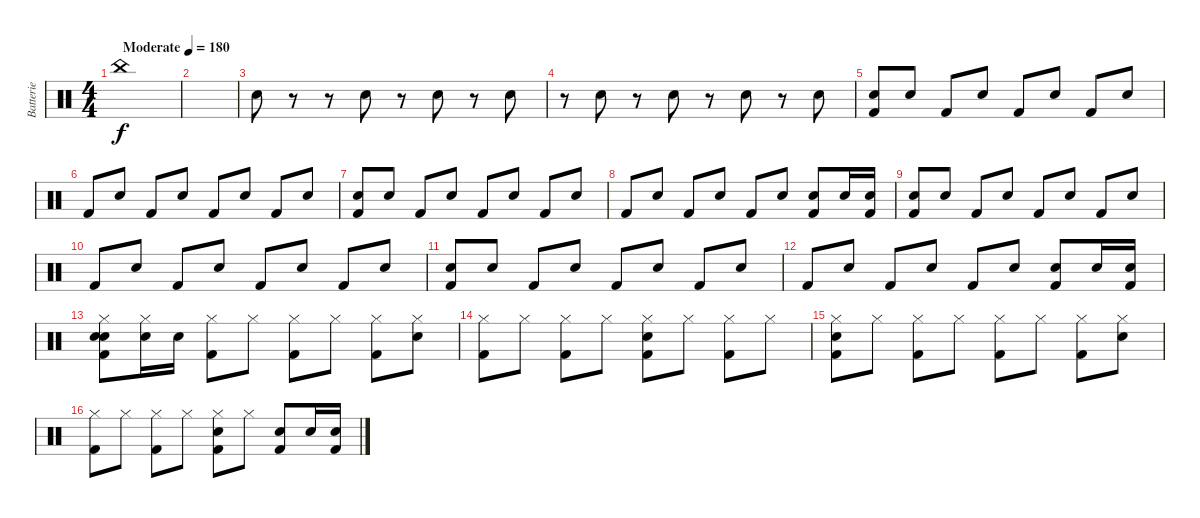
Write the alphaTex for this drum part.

\track ("Batterie" "Batterie") {instrument percussion}
\staff {score}
\articulation defaults
\ts (4 4)
\tempo (180 "Moderate")
\clef neutral
\ks c "China (hit)".1{dy f}
|
|
"Metronome (bell)".8 r.8 r.8 "Metronome (bell)".8 r.8 "Metronome (bell)".8 r.8 "Metronome (bell)".8 |
r.8 "Metronome (bell)".8 r.8 "Metronome (bell)".8 r.8 "Metronome (bell)".8 r.8 "Metronome (bell)".8 |
("Metronome (bell)" "Kick (hit) 2").8 "Electric Snare (hit)".8 "Kick (hit) 2".8 "Electric Snare (hit)".8 "Kick (hit) 2".8 "Electric Snare (hit)".8 "Kick (hit) 2".8 "Electric Snare (hit)".8 |
"Kick (hit) 2".8 "Electric Snare (hit)".8 "Kick (hit) 2".8 "Electric Snare (hit)".8 "Kick (hit) 2".8 "Electric Snare (hit)".8 "Kick (hit) 2".8 "Electric Snare (hit)".8 |
("Metronome (bell)" "Kick (hit) 2").8 "Electric Snare (hit)".8 "Kick (hit) 2".8 "Electric Snare (hit)".8 "Kick (hit) 2".8 "Electric Snare (hit)".8 "Kick (hit) 2".8 "Electric Snare (hit)".8 |
"Kick (hit) 2".8 "Electric Snare (hit)".8 "Kick (hit) 2".8 "Electric Snare (hit)".8 "Kick (hit) 2".8 "Electric Snare (hit)".8 ("Electric Snare (hit)" "Kick (hit) 2").8 "Electric Snare (hit)".16 ("Electric Snare (hit)" "Kick (hit) 2").16 |
("Metronome (bell)" "Kick (hit) 2").8 "Electric Snare (hit)".8 "Kick (hit) 2".8 "Electric Snare (hit)".8 "Kick (hit) 2".8 "Electric Snare (hit)".8 "Kick (hit) 2".8 "Electric Snare (hit)".8 |
"Kick (hit) 2".8 "Electric Snare (hit)".8 "Kick (hit) 2".8 "Electric Snare (hit)".8 "Kick (hit) 2".8 "Electric Snare (hit)".8 "Kick (hit) 2".8 "Electric Snare (hit)".8 |
("Metronome (bell)" "Kick (hit) 2").8 "Electric Snare (hit)".8 "Kick (hit) 2".8 "Electric Snare (hit)".8 "Kick (hit) 2".8 "Electric Snare (hit)".8 "Kick (hit) 2".8 "Electric Snare (hit)".8 |
"Kick (hit) 2".8 "Electric Snare (hit)".8 "Kick (hit) 2".8 "Electric Snare (hit)".8 "Kick (hit) 2".8 "Electric Snare (hit)".8 ("Electric Snare (hit)" "Kick (hit) 2").8 "Electric Snare (hit)".16 ("Electric Snare (hit)" "Kick (hit) 2").16 |
("Metronome (bell)" "Hi-Hat (closed)" "Electric Snare (hit)" "Kick (hit) 2").8 ("Hi-Hat (closed)" "Electric Snare (hit)").16 "Electric Snare (hit)".16 ("Hi-Hat (closed)" "Kick (hit) 2").8 "Hi-Hat (closed)".8 ("Hi-Hat (closed)" "Kick (hit) 2").8 "Hi-Hat (closed)".8 ("Hi-Hat (closed)" "Kick (hit) 2").8 ("Hi-Hat (closed)" "Electric Snare (hit)").8 |
("Hi-Hat (closed)" "Kick (hit) 2").8 "Hi-Hat (closed)".8 ("Hi-Hat (closed)" "Kick (hit) 2").8 "Hi-Hat (closed)".8 ("Hi-Hat (closed)" "Electric Snare (hit)" "Kick (hit) 2").8 "Hi-Hat (closed)".8 ("Hi-Hat (closed)" "Kick (hit) 2").8 "Hi-Hat (closed)".8 |
("Metronome (bell)" "Hi-Hat (closed)" "Kick (hit) 2").8 "Hi-Hat (closed)".8 ("Hi-Hat (closed)" "Kick (hit) 2").8 "Hi-Hat (closed)".8 ("Hi-Hat (closed)" "Kick (hit) 2").8 "Hi-Hat (closed)".8 ("Hi-Hat (closed)" "Kick (hit) 2").8 ("Hi-Hat (closed)" "Electric Snare (hit)").8 |
("Hi-Hat (closed)" "Kick (hit) 2").8 "Hi-Hat (closed)".8 ("Hi-Hat (closed)" "Kick (hit) 2").8 "Hi-Hat (closed)".8 ("Hi-Hat (closed)" "Electric Snare (hit)" "Kick (hit) 2").8 "Hi-Hat (closed)".8 ("Electric Snare (hit)" "Kick (hit) 2").8 "Electric Snare (hit)".16 ("Electric Snare (hit)" "Kick (hit) 2").16
